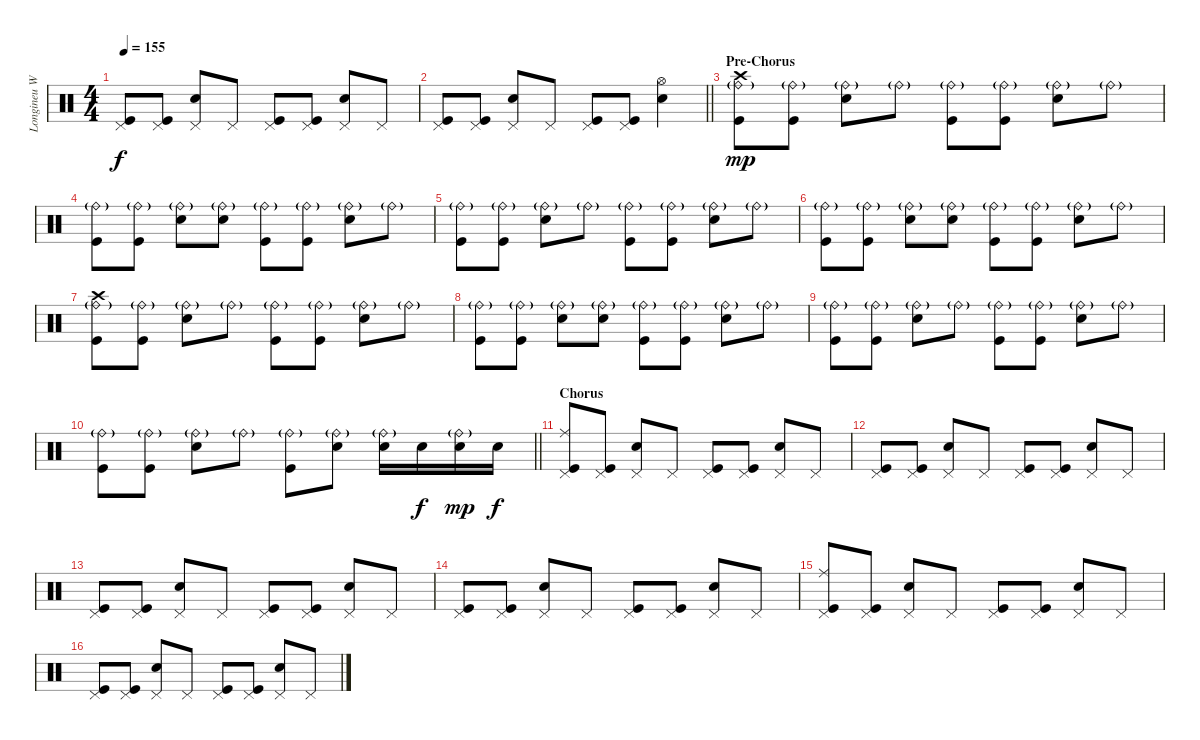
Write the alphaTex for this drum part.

\track ("Longineu W. Parsons III - Drums" "Longineu W") {instrument percussion}
\staff {score}
\articulation defaults
\ts (4 4)
\tempo 155
\clef neutral
\ks c
("Pedal Hi-Hat (hit)" "Kick (hit)").8{dy f} ("Pedal Hi-Hat (hit)" "Kick (hit)").8 ("Pedal Hi-Hat (hit)" "Snare (hit) 2").8 "Pedal Hi-Hat (hit)".8 ("Pedal Hi-Hat (hit)" "Kick (hit)").8 ("Pedal Hi-Hat (hit)" "Kick (hit)").8 ("Pedal Hi-Hat (hit)" "Snare (hit) 2").8 "Pedal Hi-Hat (hit)".8 |
\barLineRight lightlight
("Pedal Hi-Hat (hit)" "Kick (hit)").8 ("Pedal Hi-Hat (hit)" "Kick (hit)").8 ("Pedal Hi-Hat (hit)" "Snare (hit) 2").8 "Pedal Hi-Hat (hit)".8 ("Pedal Hi-Hat (hit)" "Kick (hit)").8 ("Pedal Hi-Hat (hit)" "Kick (hit)").8 ("Hi-Hat (open)" "Snare (hit) 2").4 |
\section ("" "Pre-Chorus")
("Crash high (hit)" "Ride (bell)"{g} "Kick (hit)").8{dy mp} ("Ride (bell)"{g} "Kick (hit)").8 ("Ride (bell)"{g} "Snare (hit) 2").8 "Ride (bell)"{g}.8 ("Ride (bell)"{g} "Kick (hit)").8 ("Ride (bell)"{g} "Kick (hit)").8 ("Ride (bell)"{g} "Snare (hit) 2").8 "Ride (bell)"{g}.8 |
("Ride (bell)"{g} "Kick (hit)").8 ("Ride (bell)"{g} "Kick (hit)").8 ("Ride (bell)"{g} "Snare (hit) 2").8 ("Ride (bell)"{g} "Snare (hit) 2").8 ("Ride (bell)"{g} "Kick (hit)").8 ("Ride (bell)"{g} "Kick (hit)").8 ("Ride (bell)"{g} "Snare (hit) 2").8 "Ride (bell)"{g}.8 |
("Ride (bell)"{g} "Kick (hit)").8 ("Ride (bell)"{g} "Kick (hit)").8 ("Ride (bell)"{g} "Snare (hit) 2").8 "Ride (bell)"{g}.8 ("Ride (bell)"{g} "Kick (hit)").8 ("Ride (bell)"{g} "Kick (hit)").8 ("Ride (bell)"{g} "Snare (hit) 2").8 "Ride (bell)"{g}.8 |
("Ride (bell)"{g} "Kick (hit)").8 ("Ride (bell)"{g} "Kick (hit)").8 ("Ride (bell)"{g} "Snare (hit) 2").8 ("Ride (bell)"{g} "Snare (hit) 2").8 ("Ride (bell)"{g} "Kick (hit)").8 ("Ride (bell)"{g} "Kick (hit)").8 ("Ride (bell)"{g} "Snare (hit) 2").8 "Ride (bell)"{g}.8 |
("Crash high (hit)" "Ride (bell)"{g} "Kick (hit)").8 ("Ride (bell)"{g} "Kick (hit)").8 ("Ride (bell)"{g} "Snare (hit) 2").8 "Ride (bell)"{g}.8 ("Ride (bell)"{g} "Kick (hit)").8 ("Ride (bell)"{g} "Kick (hit)").8 ("Ride (bell)"{g} "Snare (hit) 2").8 "Ride (bell)"{g}.8 |
("Ride (bell)"{g} "Kick (hit)").8 ("Ride (bell)"{g} "Kick (hit)").8 ("Ride (bell)"{g} "Snare (hit) 2").8 ("Ride (bell)"{g} "Snare (hit) 2").8 ("Ride (bell)"{g} "Kick (hit)").8 ("Ride (bell)"{g} "Kick (hit)").8 ("Ride (bell)"{g} "Snare (hit) 2").8 "Ride (bell)"{g}.8 |
("Ride (bell)"{g} "Kick (hit)").8 ("Ride (bell)"{g} "Kick (hit)").8 ("Ride (bell)"{g} "Snare (hit) 2").8 "Ride (bell)"{g}.8 ("Ride (bell)"{g} "Kick (hit)").8 ("Ride (bell)"{g} "Kick (hit)").8 ("Ride (bell)"{g} "Snare (hit) 2").8 "Ride (bell)"{g}.8 |
\barLineRight lightlight
("Ride (bell)"{g} "Kick (hit)").8 ("Ride (bell)"{g} "Kick (hit)").8 ("Ride (bell)"{g} "Snare (hit) 2").8 "Ride (bell)"{g}.8 ("Ride (bell)"{g} "Kick (hit)").8 ("Ride (bell)"{g} "Snare (hit) 2").8 ("Ride (bell)"{g} "Snare (hit) 2").16 "Snare (hit) 2".16{dy f} ("Ride (bell)"{g} "Snare (hit) 2").16{dy mp} "Snare (hit) 2".16{dy f} |
\section ("" "Chorus")
("Pedal Hi-Hat (hit)" "Ride (middle)" "Kick (hit)").8 ("Pedal Hi-Hat (hit)" "Kick (hit)").8 ("Pedal Hi-Hat (hit)" "Snare (hit) 2").8 "Pedal Hi-Hat (hit)".8 ("Pedal Hi-Hat (hit)" "Kick (hit)").8 ("Pedal Hi-Hat (hit)" "Kick (hit)").8 ("Pedal Hi-Hat (hit)" "Snare (hit) 2").8 "Pedal Hi-Hat (hit)".8 |
("Pedal Hi-Hat (hit)" "Kick (hit)").8 ("Pedal Hi-Hat (hit)" "Kick (hit)").8 ("Pedal Hi-Hat (hit)" "Snare (hit) 2").8 "Pedal Hi-Hat (hit)".8 ("Pedal Hi-Hat (hit)" "Kick (hit)").8 ("Pedal Hi-Hat (hit)" "Kick (hit)").8 ("Pedal Hi-Hat (hit)" "Snare (hit) 2").8 "Pedal Hi-Hat (hit)".8 |
("Pedal Hi-Hat (hit)" "Kick (hit)").8 ("Pedal Hi-Hat (hit)" "Kick (hit)").8 ("Pedal Hi-Hat (hit)" "Snare (hit) 2").8 "Pedal Hi-Hat (hit)".8 ("Pedal Hi-Hat (hit)" "Kick (hit)").8 ("Pedal Hi-Hat (hit)" "Kick (hit)").8 ("Pedal Hi-Hat (hit)" "Snare (hit) 2").8 "Pedal Hi-Hat (hit)".8 |
("Pedal Hi-Hat (hit)" "Kick (hit)").8 ("Pedal Hi-Hat (hit)" "Kick (hit)").8 ("Pedal Hi-Hat (hit)" "Snare (hit) 2").8 "Pedal Hi-Hat (hit)".8 ("Pedal Hi-Hat (hit)" "Kick (hit)").8 ("Pedal Hi-Hat (hit)" "Kick (hit)").8 ("Pedal Hi-Hat (hit)" "Snare (hit) 2").8 "Pedal Hi-Hat (hit)".8 |
("Pedal Hi-Hat (hit)" "Ride (middle)" "Kick (hit)").8 ("Pedal Hi-Hat (hit)" "Kick (hit)").8 ("Pedal Hi-Hat (hit)" "Snare (hit) 2").8 "Pedal Hi-Hat (hit)".8 ("Pedal Hi-Hat (hit)" "Kick (hit)").8 ("Pedal Hi-Hat (hit)" "Kick (hit)").8 ("Pedal Hi-Hat (hit)" "Snare (hit) 2").8 "Pedal Hi-Hat (hit)".8 |
("Pedal Hi-Hat (hit)" "Kick (hit)").8 ("Pedal Hi-Hat (hit)" "Kick (hit)").8 ("Pedal Hi-Hat (hit)" "Snare (hit) 2").8 "Pedal Hi-Hat (hit)".8 ("Pedal Hi-Hat (hit)" "Kick (hit)").8 ("Pedal Hi-Hat (hit)" "Kick (hit)").8 ("Pedal Hi-Hat (hit)" "Snare (hit) 2").8 "Pedal Hi-Hat (hit)".8
